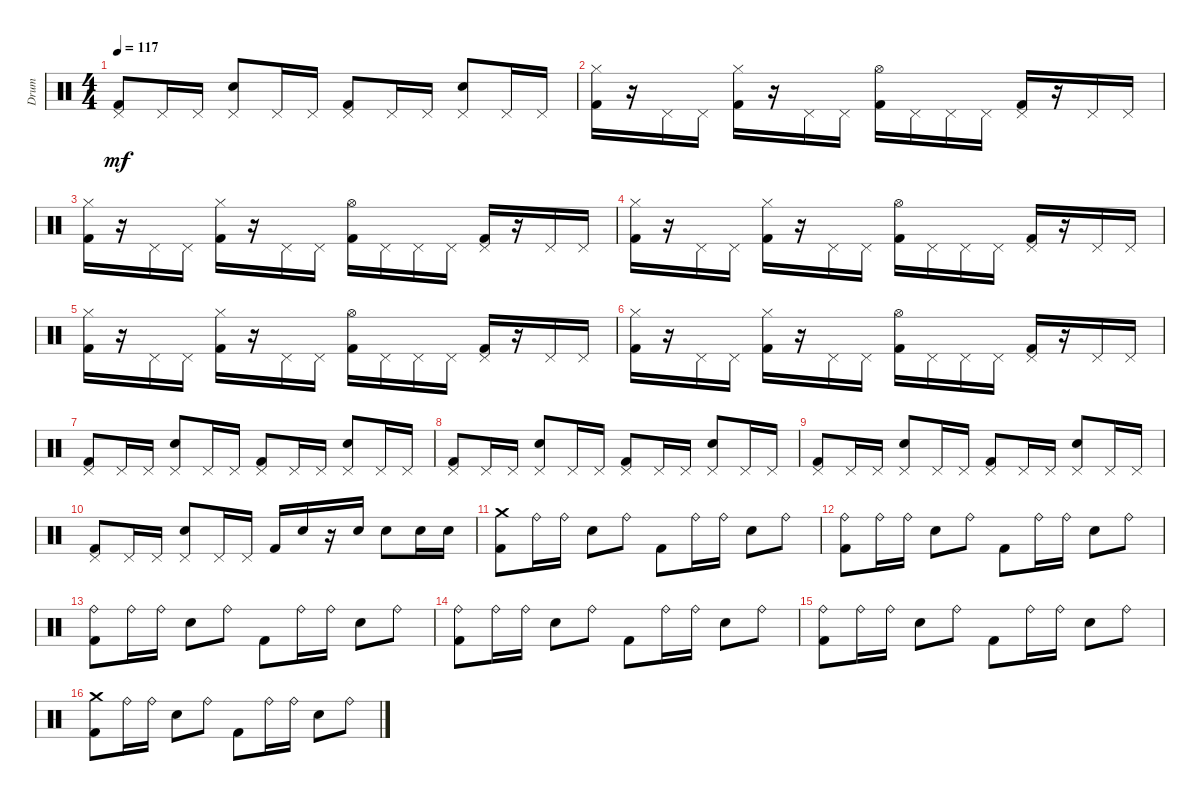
\track ("Drum" "Drum") {instrument percussion}
\staff {score}
\articulation defaults
\ts (4 4)
\tempo 117
\clef neutral
\ks c
("Pedal Hi-Hat (hit)" "Kick (hit) 2").8{dy mf} "Pedal Hi-Hat (hit)".16 "Pedal Hi-Hat (hit)".16 ("Pedal Hi-Hat (hit)" "Snare (hit) 2").8 "Pedal Hi-Hat (hit)".16 "Pedal Hi-Hat (hit)".16 ("Pedal Hi-Hat (hit)" "Kick (hit) 2").8 "Pedal Hi-Hat (hit)".16 "Pedal Hi-Hat (hit)".16 ("Snare (hit) 2" "Pedal Hi-Hat (hit)").8 "Pedal Hi-Hat (hit)".16 "Pedal Hi-Hat (hit)".16 |
("Kick (hit) 2" "Hi-Hat (closed)").16 r.16 "Pedal Hi-Hat (hit)".16 "Pedal Hi-Hat (hit)".16 ("Kick (hit) 2" "Hi-Hat (closed)").16 r.16 "Pedal Hi-Hat (hit)".16 "Pedal Hi-Hat (hit)".16 ("Kick (hit) 2" "Hi-Hat (open)").16 "Pedal Hi-Hat (hit)".16 "Pedal Hi-Hat (hit)".16 "Pedal Hi-Hat (hit)".16 ("Pedal Hi-Hat (hit)" "Kick (hit) 2").16 r.16 "Pedal Hi-Hat (hit)".16 "Pedal Hi-Hat (hit)".16 |
("Hi-Hat (closed)" "Kick (hit) 2").16 r.16 "Pedal Hi-Hat (hit)".16 "Pedal Hi-Hat (hit)".16 ("Hi-Hat (closed)" "Kick (hit) 2").16 r.16 "Pedal Hi-Hat (hit)".16 "Pedal Hi-Hat (hit)".16 ("Kick (hit) 2" "Hi-Hat (open)").16 "Pedal Hi-Hat (hit)".16 "Pedal Hi-Hat (hit)".16 "Pedal Hi-Hat (hit)".16 ("Kick (hit) 2" "Pedal Hi-Hat (hit)").16 r.16 "Pedal Hi-Hat (hit)".16 "Pedal Hi-Hat (hit)".16 |
("Hi-Hat (closed)" "Kick (hit) 2").16 r.16 "Pedal Hi-Hat (hit)".16 "Pedal Hi-Hat (hit)".16 ("Kick (hit) 2" "Hi-Hat (closed)").16 r.16 "Pedal Hi-Hat (hit)".16 "Pedal Hi-Hat (hit)".16 ("Hi-Hat (open)" "Kick (hit) 2").16 "Pedal Hi-Hat (hit)".16 "Pedal Hi-Hat (hit)".16 "Pedal Hi-Hat (hit)".16 ("Pedal Hi-Hat (hit)" "Kick (hit) 2").16 r.16 "Pedal Hi-Hat (hit)".16 "Pedal Hi-Hat (hit)".16 |
("Hi-Hat (closed)" "Kick (hit) 2").16 r.16 "Pedal Hi-Hat (hit)".16 "Pedal Hi-Hat (hit)".16 ("Kick (hit) 2" "Hi-Hat (closed)").16 r.16 "Pedal Hi-Hat (hit)".16 "Pedal Hi-Hat (hit)".16 ("Kick (hit) 2" "Hi-Hat (open)").16 "Pedal Hi-Hat (hit)".16 "Pedal Hi-Hat (hit)".16 "Pedal Hi-Hat (hit)".16 ("Kick (hit) 2" "Pedal Hi-Hat (hit)").16 r.16 "Pedal Hi-Hat (hit)".16 "Pedal Hi-Hat (hit)".16 |
("Kick (hit) 2" "Hi-Hat (closed)").16 r.16 "Pedal Hi-Hat (hit)".16 "Pedal Hi-Hat (hit)".16 ("Kick (hit) 2" "Hi-Hat (closed)").16 r.16 "Pedal Hi-Hat (hit)".16 "Pedal Hi-Hat (hit)".16 ("Hi-Hat (open)" "Kick (hit) 2").16 "Pedal Hi-Hat (hit)".16 "Pedal Hi-Hat (hit)".16 "Pedal Hi-Hat (hit)".16 ("Pedal Hi-Hat (hit)" "Kick (hit) 2").16 r.16 "Pedal Hi-Hat (hit)".16 "Pedal Hi-Hat (hit)".16 |
("Pedal Hi-Hat (hit)" "Kick (hit) 2").8 "Pedal Hi-Hat (hit)".16 "Pedal Hi-Hat (hit)".16 ("Pedal Hi-Hat (hit)" "Snare (hit) 2").8 "Pedal Hi-Hat (hit)".16 "Pedal Hi-Hat (hit)".16 ("Pedal Hi-Hat (hit)" "Kick (hit) 2").8 "Pedal Hi-Hat (hit)".16 "Pedal Hi-Hat (hit)".16 ("Snare (hit) 2" "Pedal Hi-Hat (hit)").8 "Pedal Hi-Hat (hit)".16 "Pedal Hi-Hat (hit)".16 |
("Pedal Hi-Hat (hit)" "Kick (hit) 2").8 "Pedal Hi-Hat (hit)".16 "Pedal Hi-Hat (hit)".16 ("Pedal Hi-Hat (hit)" "Snare (hit) 2").8 "Pedal Hi-Hat (hit)".16 "Pedal Hi-Hat (hit)".16 ("Pedal Hi-Hat (hit)" "Kick (hit) 2").8 "Pedal Hi-Hat (hit)".16 "Pedal Hi-Hat (hit)".16 ("Pedal Hi-Hat (hit)" "Snare (hit) 2").8 "Pedal Hi-Hat (hit)".16 "Pedal Hi-Hat (hit)".16 |
("Pedal Hi-Hat (hit)" "Kick (hit) 2").8 "Pedal Hi-Hat (hit)".16 "Pedal Hi-Hat (hit)".16 ("Pedal Hi-Hat (hit)" "Snare (hit) 2").8 "Pedal Hi-Hat (hit)".16 "Pedal Hi-Hat (hit)".16 ("Pedal Hi-Hat (hit)" "Kick (hit) 2").8 "Pedal Hi-Hat (hit)".16 "Pedal Hi-Hat (hit)".16 ("Pedal Hi-Hat (hit)" "Snare (hit) 2").8 "Pedal Hi-Hat (hit)".16 "Pedal Hi-Hat (hit)".16 |
("Pedal Hi-Hat (hit)" "Kick (hit) 2").8 "Pedal Hi-Hat (hit)".16 "Pedal Hi-Hat (hit)".16 ("Pedal Hi-Hat (hit)" "Snare (hit) 2").8 "Pedal Hi-Hat (hit)".16 "Pedal Hi-Hat (hit)".16 "Kick (hit) 2".16 "Snare (hit) 2".16 r.16 "Snare (hit) 2".16 "Snare (hit) 2".8 "Snare (hit) 2".16 "Snare (hit) 2".16 |
("Kick (hit) 2" "Crash medium (hit)").8 "Ride (bell)".16 "Ride (bell)".16 "Snare (hit) 2".8 "Ride (bell)".8 "Kick (hit) 2".8 "Ride (bell)".16 "Ride (bell)".16 "Snare (hit) 2".8 "Ride (bell)".8 |
("Kick (hit) 2" "Ride (bell)").8 "Ride (bell)".16 "Ride (bell)".16 "Snare (hit) 2".8 "Ride (bell)".8 "Kick (hit) 2".8 "Ride (bell)".16 "Ride (bell)".16 "Snare (hit) 2".8 "Ride (bell)".8 |
("Kick (hit) 2" "Ride (bell)").8 "Ride (bell)".16 "Ride (bell)".16 "Snare (hit) 2".8 "Ride (bell)".8 "Kick (hit) 2".8 "Ride (bell)".16 "Ride (bell)".16 "Snare (hit) 2".8 "Ride (bell)".8 |
("Ride (bell)" "Kick (hit) 2").8 "Ride (bell)".16 "Ride (bell)".16 "Snare (hit) 2".8 "Ride (bell)".8 "Kick (hit) 2".8 "Ride (bell)".16 "Ride (bell)".16 "Snare (hit) 2".8 "Ride (bell)".8 |
("Ride (bell)" "Kick (hit) 2").8 "Ride (bell)".16 "Ride (bell)".16 "Snare (hit) 2".8 "Ride (bell)".8 "Kick (hit) 2".8 "Ride (bell)".16 "Ride (bell)".16 "Snare (hit) 2".8 "Ride (bell)".8 |
("Kick (hit) 2" "Crash medium (hit)").8 "Ride (bell)".16 "Ride (bell)".16 "Snare (hit) 2".8 "Ride (bell)".8 "Kick (hit) 2".8 "Ride (bell)".16 "Ride (bell)".16 "Snare (hit) 2".8 "Ride (bell)".8
